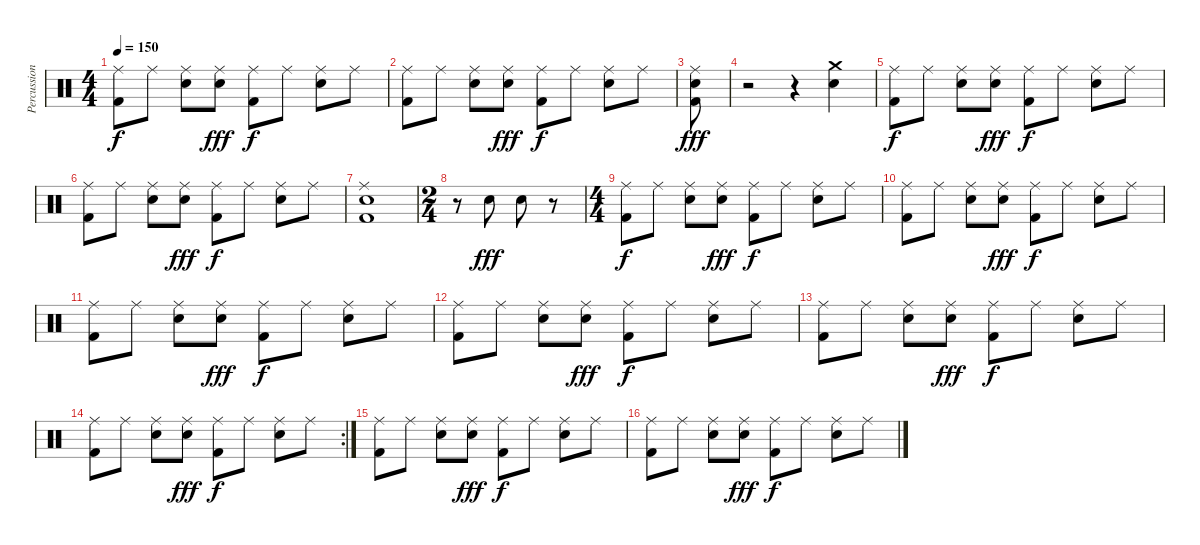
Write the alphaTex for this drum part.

\track ("Percussions" "Percussion") {instrument percussion}
\staff {score}
\articulation defaults
\ts (4 4)
\tempo 150
\clef neutral
\ks c
("Ride (middle)" "Kick (hit) 2").8{dy f} "Ride (middle)".8 ("Ride (middle)" "Electric Snare (hit)").8 ("Ride (middle)" "Electric Snare (hit)").8{dy fff} ("Ride (middle)" "Kick (hit) 2").8{dy f} "Ride (middle)".8 ("Ride (middle)" "Electric Snare (hit)").8 "Ride (middle)".8 |
("Ride (middle)" "Kick (hit) 2").8 "Ride (middle)".8 ("Ride (middle)" "Electric Snare (hit)").8 ("Ride (middle)" "Electric Snare (hit)").8{dy fff} ("Ride (middle)" "Kick (hit) 2").8{dy f} "Ride (middle)".8 ("Ride (middle)" "Electric Snare (hit)").8 "Ride (middle)".8 |
("Ride (middle)" "Electric Snare (hit)" "Kick (hit) 2").8{dy fff} |
r.2 r.4 ("Crash medium (hit)" "Electric Snare (hit)").4 |
("Ride (middle)" "Kick (hit) 2").8{dy f} "Ride (middle)".8 ("Ride (middle)" "Electric Snare (hit)").8 ("Ride (middle)" "Electric Snare (hit)").8{dy fff} ("Ride (middle)" "Kick (hit) 2").8{dy f} "Ride (middle)".8 ("Ride (middle)" "Electric Snare (hit)").8 "Ride (middle)".8 |
("Ride (middle)" "Kick (hit) 2").8 "Ride (middle)".8 ("Ride (middle)" "Electric Snare (hit)").8 ("Ride (middle)" "Electric Snare (hit)").8{dy fff} ("Ride (middle)" "Kick (hit) 2").8{dy f} "Ride (middle)".8 ("Ride (middle)" "Electric Snare (hit)").8 "Ride (middle)".8 |
("Ride (middle)" "Electric Snare (hit)" "Kick (hit) 2").1 |
\ts (2 4)
r.8 "Electric Snare (hit)".8{dy fff} "Electric Snare (hit)".8 r.8 |
\ts (4 4)
("Ride (middle)" "Kick (hit) 2").8{dy f} "Ride (middle)".8 ("Ride (middle)" "Electric Snare (hit)").8 ("Ride (middle)" "Electric Snare (hit)").8{dy fff} ("Ride (middle)" "Kick (hit) 2").8{dy f} "Ride (middle)".8 ("Ride (middle)" "Electric Snare (hit)").8 "Ride (middle)".8 |
("Ride (middle)" "Kick (hit) 2").8 "Ride (middle)".8 ("Ride (middle)" "Electric Snare (hit)").8 ("Ride (middle)" "Electric Snare (hit)").8{dy fff} ("Ride (middle)" "Kick (hit) 2").8{dy f} "Ride (middle)".8 ("Ride (middle)" "Electric Snare (hit)").8 "Ride (middle)".8 |
("Ride (middle)" "Kick (hit) 2").8 "Ride (middle)".8 ("Ride (middle)" "Electric Snare (hit)").8 ("Ride (middle)" "Electric Snare (hit)").8{dy fff} ("Ride (middle)" "Kick (hit) 2").8{dy f} "Ride (middle)".8 ("Ride (middle)" "Electric Snare (hit)").8 "Ride (middle)".8 |
("Ride (middle)" "Kick (hit) 2").8 "Ride (middle)".8 ("Ride (middle)" "Electric Snare (hit)").8 ("Ride (middle)" "Electric Snare (hit)").8{dy fff} ("Ride (middle)" "Kick (hit) 2").8{dy f} "Ride (middle)".8 ("Ride (middle)" "Electric Snare (hit)").8 "Ride (middle)".8 |
("Ride (middle)" "Kick (hit) 2").8 "Ride (middle)".8 ("Ride (middle)" "Electric Snare (hit)").8 ("Ride (middle)" "Electric Snare (hit)").8{dy fff} ("Ride (middle)" "Kick (hit) 2").8{dy f} "Ride (middle)".8 ("Ride (middle)" "Electric Snare (hit)").8 "Ride (middle)".8 |
\rc 2
("Ride (middle)" "Kick (hit) 2").8 "Ride (middle)".8 ("Ride (middle)" "Electric Snare (hit)").8 ("Ride (middle)" "Electric Snare (hit)").8{dy fff} ("Ride (middle)" "Kick (hit) 2").8{dy f} "Ride (middle)".8 ("Ride (middle)" "Electric Snare (hit)").8 "Ride (middle)".8 |
("Ride (middle)" "Kick (hit) 2").8 "Ride (middle)".8 ("Ride (middle)" "Electric Snare (hit)").8 ("Ride (middle)" "Electric Snare (hit)").8{dy fff} ("Ride (middle)" "Kick (hit) 2").8{dy f} "Ride (middle)".8 ("Ride (middle)" "Electric Snare (hit)").8 "Ride (middle)".8 |
("Ride (middle)" "Kick (hit) 2").8 "Ride (middle)".8 ("Ride (middle)" "Electric Snare (hit)").8 ("Ride (middle)" "Electric Snare (hit)").8{dy fff} ("Ride (middle)" "Kick (hit) 2").8{dy f} "Ride (middle)".8 ("Ride (middle)" "Electric Snare (hit)").8 "Ride (middle)".8
